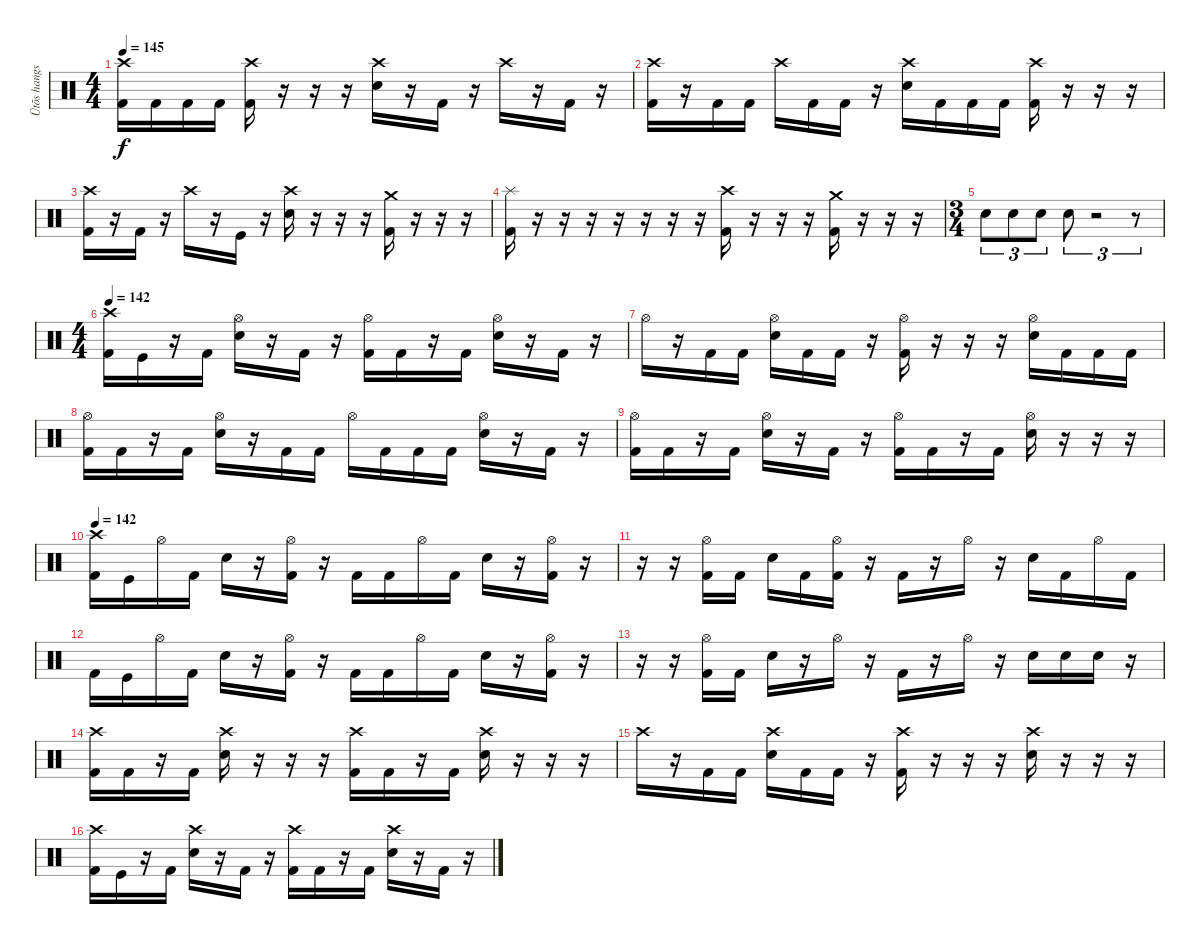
\track ("Ütõs hangszer" "Ütõs hangs") {instrument percussion}
\staff {score}
\articulation defaults
\ts (4 4)
\tempo 145
\clef neutral
\ks c
("Crash high (hit)" "Kick (hit) 2").16{dy f} "Kick (hit) 2".16 "Kick (hit) 2".16 "Kick (hit) 2".16 ("Crash high (hit)" "Kick (hit) 2").16 r.16 r.16 r.16 ("Crash high (hit)" "Electric Snare (hit)").16 r.16 "Kick (hit) 2".16 r.16 "Crash high (hit)".16 r.16 "Kick (hit) 2".16 r.16 |
("Crash high (hit)" "Kick (hit) 2").16 r.16 "Kick (hit) 2".16 "Kick (hit) 2".16 "Crash high (hit)".16 "Kick (hit) 2".16 "Kick (hit) 2".16 r.16 ("Crash high (hit)" "Electric Snare (hit)").16 "Kick (hit) 2".16 "Kick (hit) 2".16 "Kick (hit) 2".16 ("Crash high (hit)" "Kick (hit) 2").16 r.16 r.16 r.16 |
("Crash high (hit)" "Kick (hit) 2").16 r.16 "Kick (hit) 2".16 r.16 "Crash high (hit)".16 r.16 "Kick (hit)".16 r.16 ("Crash high (hit)" "Electric Snare (hit)").16 r.16 r.16 r.16 ("Crash medium (hit)" "Kick (hit) 2").16 r.16 r.16 r.16 |
("Splash (hit)" "Kick (hit) 2").16 r.16 r.16 r.16 r.16 r.16 r.16 r.16 ("Crash high (hit)" "Kick (hit) 2").16 r.16 r.16 r.16 ("Crash medium (hit)" "Kick (hit) 2").16 r.16 r.16 r.16 |
\ts (3 4)
"Electric Snare (hit)".8{tu (3 2)} "Electric Snare (hit)".8{tu (3 2)} "Electric Snare (hit)".8{tu (3 2)} "Electric Snare (hit)".8{tu (3 2)} r.2{tu (3 2)} r.8{tu (3 2)} |
\ts (4 4)
\tempo 142
("Crash high (hit)" "Kick (hit) 2").16 "Kick (hit)".16 r.16 "Kick (hit) 2".16 ("Hi-Hat (open)" "Electric Snare (hit)").16 r.16 "Kick (hit) 2".16 r.16 ("Hi-Hat (open)" "Kick (hit) 2").16 "Kick (hit) 2".16 r.16 "Kick (hit) 2".16 ("Hi-Hat (open)" "Electric Snare (hit)").16 r.16 "Kick (hit) 2".16 r.16 |
"Hi-Hat (open)".16 r.16 "Kick (hit) 2".16 "Kick (hit) 2".16 ("Hi-Hat (open)" "Electric Snare (hit)").16 "Kick (hit) 2".16 "Kick (hit) 2".16 r.16 ("Hi-Hat (open)" "Kick (hit) 2").16 r.16 r.16 r.16 ("Hi-Hat (open)" "Electric Snare (hit)").16 "Kick (hit) 2".16 "Kick (hit) 2".16 "Kick (hit) 2".16 |
("Hi-Hat (open)" "Kick (hit) 2").16 "Kick (hit) 2".16 r.16 "Kick (hit) 2".16 ("Hi-Hat (open)" "Electric Snare (hit)").16 r.16 "Kick (hit) 2".16 "Kick (hit) 2".16 "Hi-Hat (open)".16 "Kick (hit) 2".16 "Kick (hit) 2".16 "Kick (hit) 2".16 ("Hi-Hat (open)" "Electric Snare (hit)").16 r.16 "Kick (hit) 2".16 r.16 |
("Hi-Hat (open)" "Kick (hit) 2").16 "Kick (hit) 2".16 r.16 "Kick (hit) 2".16 ("Hi-Hat (open)" "Electric Snare (hit)").16 r.16 "Kick (hit) 2".16 r.16 ("Hi-Hat (open)" "Kick (hit) 2").16 "Kick (hit) 2".16 r.16 "Kick (hit) 2".16 ("Hi-Hat (open)" "Electric Snare (hit)").16 r.16 r.16 r.16 |
\tempo 142
("Crash high (hit)" "Kick (hit) 2").16 "Kick (hit)".16 "Hi-Hat (open)".16 "Kick (hit) 2".16 "Electric Snare (hit)".16 r.16 ("Hi-Hat (open)" "Kick (hit) 2").16 r.16 "Kick (hit) 2".16 "Kick (hit) 2".16 "Hi-Hat (open)".16 "Kick (hit) 2".16 "Electric Snare (hit)".16 r.16 ("Hi-Hat (open)" "Kick (hit) 2").16 r.16 |
r.16 r.16 ("Hi-Hat (open)" "Kick (hit) 2").16 "Kick (hit) 2".16 "Electric Snare (hit)".16 "Kick (hit) 2".16 ("Hi-Hat (open)" "Kick (hit) 2").16 r.16 "Kick (hit) 2".16 r.16 "Hi-Hat (open)".16 r.16 "Electric Snare (hit)".16 "Kick (hit) 2".16 "Hi-Hat (open)".16 "Kick (hit) 2".16 |
"Kick (hit) 2".16 "Kick (hit)".16 "Hi-Hat (open)".16 "Kick (hit) 2".16 "Electric Snare (hit)".16 r.16 ("Hi-Hat (open)" "Kick (hit) 2").16 r.16 "Kick (hit) 2".16 "Kick (hit) 2".16 "Hi-Hat (open)".16 "Kick (hit) 2".16 "Electric Snare (hit)".16 r.16 ("Hi-Hat (open)" "Kick (hit) 2").16 r.16 |
r.16 r.16 ("Hi-Hat (open)" "Kick (hit) 2").16 "Kick (hit) 2".16 "Electric Snare (hit)".16 r.16 "Hi-Hat (open)".16 r.16 "Kick (hit) 2".16 r.16 "Hi-Hat (open)".16 r.16 "Electric Snare (hit)".16 "Electric Snare (hit)".16 "Electric Snare (hit)".16 r.16 |
("Crash high (hit)" "Kick (hit) 2").16 "Kick (hit) 2".16 r.16 "Kick (hit) 2".16 ("Crash high (hit)" "Electric Snare (hit)").16 r.16 r.16 r.16 ("Crash high (hit)" "Kick (hit) 2").16 "Kick (hit) 2".16 r.16 "Kick (hit) 2".16 ("Crash high (hit)" "Electric Snare (hit)").16 r.16 r.16 r.16 |
"Crash high (hit)".16 r.16 "Kick (hit) 2".16 "Kick (hit) 2".16 ("Crash high (hit)" "Electric Snare (hit)").16 "Kick (hit) 2".16 "Kick (hit) 2".16 r.16 ("Crash high (hit)" "Kick (hit) 2").16 r.16 r.16 r.16 ("Crash high (hit)" "Electric Snare (hit)").16 r.16 r.16 r.16 |
("Crash high (hit)" "Kick (hit) 2").16 "Kick (hit)".16 r.16 "Kick (hit) 2".16 ("Crash high (hit)" "Electric Snare (hit)").16 r.16 "Kick (hit) 2".16 r.16 ("Crash high (hit)" "Kick (hit) 2").16 "Kick (hit) 2".16 r.16 "Kick (hit) 2".16 ("Crash high (hit)" "Electric Snare (hit)").16 r.16 "Kick (hit) 2".16 r.16
